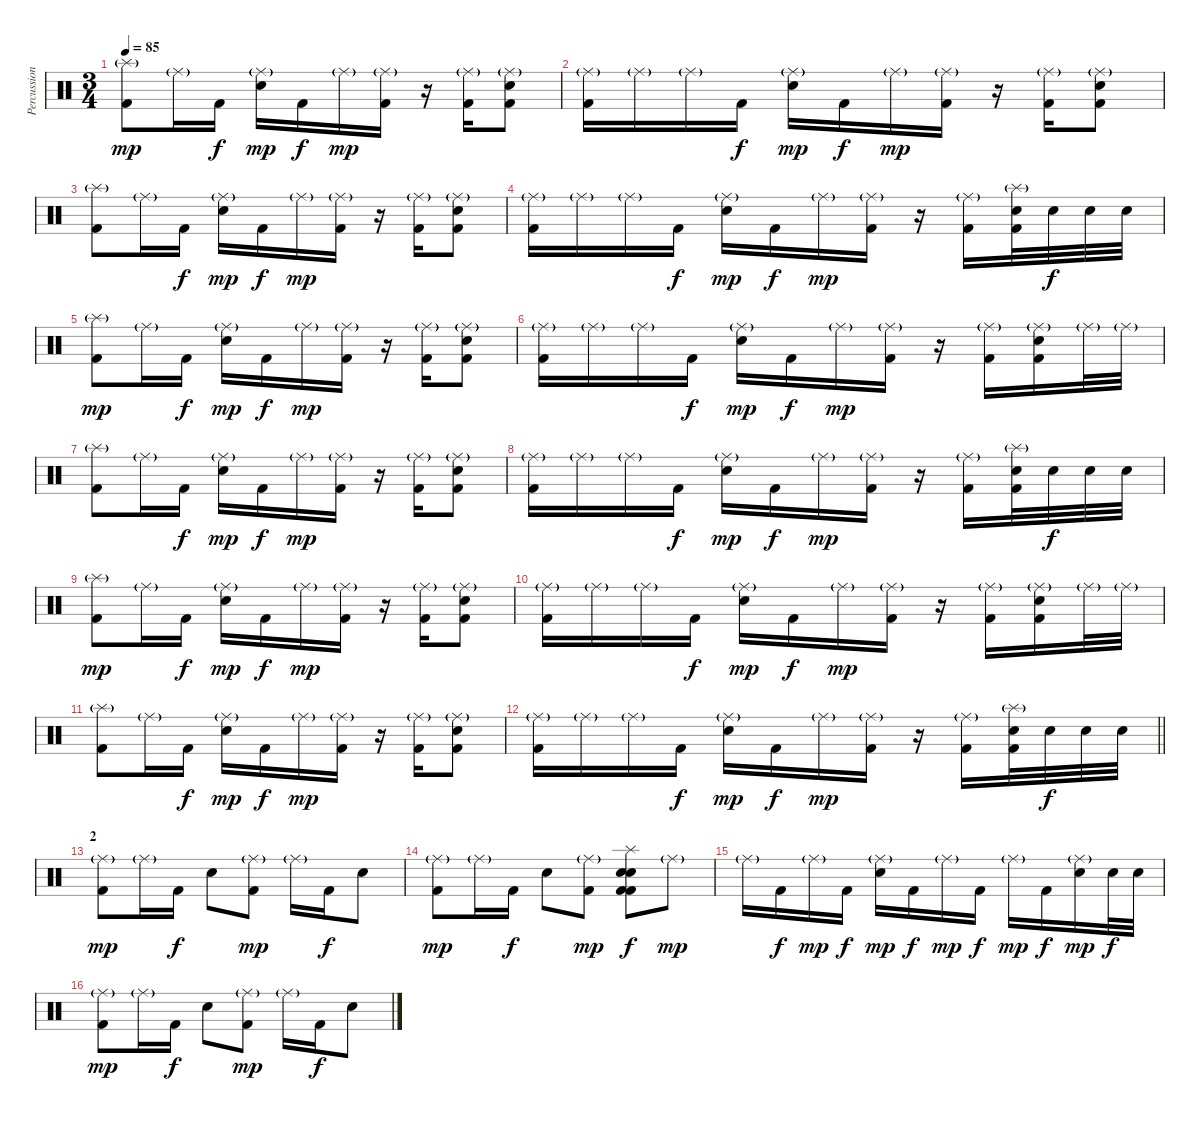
\track ("Percussion" "Percussion") {instrument percussion}
\staff {score}
\articulation defaults
\ts (3 4)
\tempo 85
\clef neutral
\ks c
("Splash (hit)"{g} "Kick (hit) 2").8{dy mp} "Ride (middle)"{g}.16 "Kick (hit) 2".16{dy f} ("Ride (middle)"{g} "Snare (hit) 2").16{dy mp} "Kick (hit) 2".16{dy f} "Ride (middle)"{g}.16{dy mp} ("Ride (middle)"{g} "Kick (hit) 2").16 r.16 ("Ride (middle)"{g} "Kick (hit) 2").16 ("Ride (middle)"{g} "Snare (hit) 2" "Kick (hit) 2").8 |
("Ride (middle)"{g} "Kick (hit) 2").16 "Ride (middle)"{g}.16 "Ride (middle)"{g}.16 "Kick (hit) 2".16{dy f} ("Ride (middle)"{g} "Snare (hit) 2").16{dy mp} "Kick (hit) 2".16{dy f} "Ride (middle)"{g}.16{dy mp} ("Ride (middle)"{g} "Kick (hit) 2").16 r.16 ("Ride (middle)"{g} "Kick (hit) 2").16 ("Ride (middle)"{g} "Snare (hit) 2" "Kick (hit) 2").8 |
("Splash (hit)"{g} "Kick (hit) 2").8 "Ride (middle)"{g}.16 "Kick (hit) 2".16{dy f} ("Ride (middle)"{g} "Snare (hit) 2").16{dy mp} "Kick (hit) 2".16{dy f} "Ride (middle)"{g}.16{dy mp} ("Ride (middle)"{g} "Kick (hit) 2").16 r.16 ("Ride (middle)"{g} "Kick (hit) 2").16 ("Ride (middle)"{g} "Snare (hit) 2" "Kick (hit) 2").8 |
("Ride (middle)"{g} "Kick (hit) 2").16 "Ride (middle)"{g}.16 "Ride (middle)"{g}.16 "Kick (hit) 2".16{dy f} ("Ride (middle)"{g} "Snare (hit) 2").16{dy mp} "Kick (hit) 2".16{dy f} "Ride (middle)"{g}.16{dy mp} ("Ride (middle)"{g} "Kick (hit) 2").16 r.16 ("Ride (middle)"{g} "Kick (hit) 2").16 ("Splash (hit)"{g} "Snare (hit) 2" "Kick (hit) 2").32 "Snare (hit) 2".32{dy f} "Snare (hit) 2".32 "Snare (hit) 2".32 |
("Splash (hit)"{g} "Kick (hit) 2").8{dy mp} "Ride (middle)"{g}.16 "Kick (hit) 2".16{dy f} ("Ride (middle)"{g} "Snare (hit) 2").16{dy mp} "Kick (hit) 2".16{dy f} "Ride (middle)"{g}.16{dy mp} ("Ride (middle)"{g} "Kick (hit) 2").16 r.16 ("Ride (middle)"{g} "Kick (hit) 2").16 ("Ride (middle)"{g} "Snare (hit) 2" "Kick (hit) 2").8 |
("Ride (middle)"{g} "Kick (hit) 2").16 "Ride (middle)"{g}.16 "Ride (middle)"{g}.16 "Kick (hit) 2".16{dy f} ("Ride (middle)"{g} "Snare (hit) 2").16{dy mp} "Kick (hit) 2".16{dy f} "Ride (middle)"{g}.16{dy mp} ("Ride (middle)"{g} "Kick (hit) 2").16 r.16 ("Ride (middle)"{g} "Kick (hit) 2").16 ("Ride (middle)"{g} "Snare (hit) 2" "Kick (hit) 2").16 "Ride (middle)"{g}.32 "Ride (middle)"{g}.32 |
("Splash (hit)"{g} "Kick (hit) 2").8 "Ride (middle)"{g}.16 "Kick (hit) 2".16{dy f} ("Ride (middle)"{g} "Snare (hit) 2").16{dy mp} "Kick (hit) 2".16{dy f} "Ride (middle)"{g}.16{dy mp} ("Ride (middle)"{g} "Kick (hit) 2").16 r.16 ("Ride (middle)"{g} "Kick (hit) 2").16 ("Ride (middle)"{g} "Snare (hit) 2" "Kick (hit) 2").8 |
("Ride (middle)"{g} "Kick (hit) 2").16 "Ride (middle)"{g}.16 "Ride (middle)"{g}.16 "Kick (hit) 2".16{dy f} ("Ride (middle)"{g} "Snare (hit) 2").16{dy mp} "Kick (hit) 2".16{dy f} "Ride (middle)"{g}.16{dy mp} ("Ride (middle)"{g} "Kick (hit) 2").16 r.16 ("Ride (middle)"{g} "Kick (hit) 2").16 ("Splash (hit)"{g} "Snare (hit) 2" "Kick (hit) 2").32 "Snare (hit) 2".32{dy f} "Snare (hit) 2".32 "Snare (hit) 2".32 |
("Splash (hit)"{g} "Kick (hit) 2").8{dy mp} "Ride (middle)"{g}.16 "Kick (hit) 2".16{dy f} ("Ride (middle)"{g} "Snare (hit) 2").16{dy mp} "Kick (hit) 2".16{dy f} "Ride (middle)"{g}.16{dy mp} ("Ride (middle)"{g} "Kick (hit) 2").16 r.16 ("Ride (middle)"{g} "Kick (hit) 2").16 ("Ride (middle)"{g} "Snare (hit) 2" "Kick (hit) 2").8 |
("Ride (middle)"{g} "Kick (hit) 2").16 "Ride (middle)"{g}.16 "Ride (middle)"{g}.16 "Kick (hit) 2".16{dy f} ("Ride (middle)"{g} "Snare (hit) 2").16{dy mp} "Kick (hit) 2".16{dy f} "Ride (middle)"{g}.16{dy mp} ("Ride (middle)"{g} "Kick (hit) 2").16 r.16 ("Ride (middle)"{g} "Kick (hit) 2").16 ("Ride (middle)"{g} "Snare (hit) 2" "Kick (hit) 2").16 "Ride (middle)"{g}.32 "Ride (middle)"{g}.32 |
("Splash (hit)"{g} "Kick (hit) 2").8 "Ride (middle)"{g}.16 "Kick (hit) 2".16{dy f} ("Ride (middle)"{g} "Snare (hit) 2").16{dy mp} "Kick (hit) 2".16{dy f} "Ride (middle)"{g}.16{dy mp} ("Ride (middle)"{g} "Kick (hit) 2").16 r.16 ("Ride (middle)"{g} "Kick (hit) 2").16 ("Ride (middle)"{g} "Snare (hit) 2" "Kick (hit) 2").8 |
\barLineRight lightlight
("Ride (middle)"{g} "Kick (hit) 2").16 "Ride (middle)"{g}.16 "Ride (middle)"{g}.16 "Kick (hit) 2".16{dy f} ("Ride (middle)"{g} "Snare (hit) 2").16{dy mp} "Kick (hit) 2".16{dy f} "Ride (middle)"{g}.16{dy mp} ("Ride (middle)"{g} "Kick (hit) 2").16 r.16 ("Ride (middle)"{g} "Kick (hit) 2").16 ("Splash (hit)"{g} "Snare (hit) 2" "Kick (hit) 2").32 "Snare (hit) 2".32{dy f} "Snare (hit) 2".32 "Snare (hit) 2".32 |
\section ("" "2")
("Ride (middle)"{g} "Kick (hit) 2").8{dy mp} "Ride (middle)"{g}.16 "Kick (hit) 2".16{dy f} "Snare (hit) 2".8 ("Ride (middle)"{g} "Kick (hit) 2").8{dy mp} "Ride (middle)"{g}.16 "Kick (hit) 2".16{dy f} "Snare (hit) 2".8 |
("Ride (middle)"{g} "Kick (hit) 2").8{dy mp} "Ride (middle)"{g}.16 "Kick (hit) 2".16{dy f} "Snare (hit) 2".8 ("Ride (middle)"{g} "Kick (hit) 2").8{dy mp} ("Splash (hit)" "Snare (hit) 2" "Snare (hit) 2" "Kick (hit) 2" "Kick (hit) 2").8{dy f} "Ride (middle)"{g}.8{dy mp} |
"Ride (middle)"{g}.16 "Kick (hit) 2".16{dy f} "Ride (middle)"{g}.16{dy mp} "Kick (hit) 2".16{dy f} ("Ride (middle)"{g} "Snare (hit) 2").16{dy mp} "Kick (hit) 2".16{dy f} "Ride (middle)"{g}.16{dy mp} "Kick (hit) 2".16{dy f} "Ride (middle)"{g}.16{dy mp} "Kick (hit) 2".16{dy f} ("Ride (middle)"{g} "Snare (hit) 2").16{dy mp} "Snare (hit) 2".32{dy f} "Snare (hit) 2".32 |
("Ride (middle)"{g} "Kick (hit) 2").8{dy mp} "Ride (middle)"{g}.16 "Kick (hit) 2".16{dy f} "Snare (hit) 2".8 ("Ride (middle)"{g} "Kick (hit) 2").8{dy mp} "Ride (middle)"{g}.16 "Kick (hit) 2".16{dy f} "Snare (hit) 2".8
